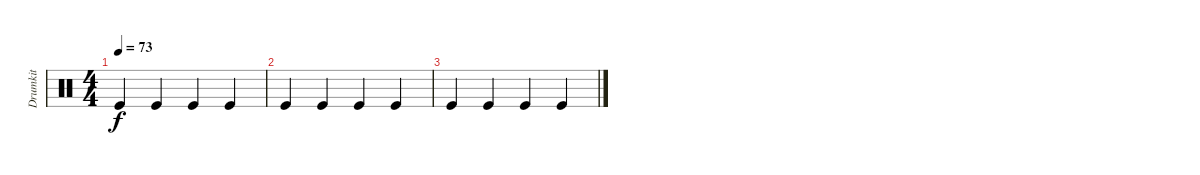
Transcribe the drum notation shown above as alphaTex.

\track ("Drumkit" "Drumkit") {instrument percussion}
\staff {score}
\articulation defaults
\ts (4 4)
\tempo 73
\clef neutral
\ks c "Kick (hit)".4{dy f} "Kick (hit)".4 "Kick (hit)".4 "Kick (hit)".4
|
"Kick (hit)".4 "Kick (hit)".4 "Kick (hit)".4 "Kick (hit)".4 |
"Kick (hit)".4 "Kick (hit)".4 "Kick (hit)".4 "Kick (hit)".4
